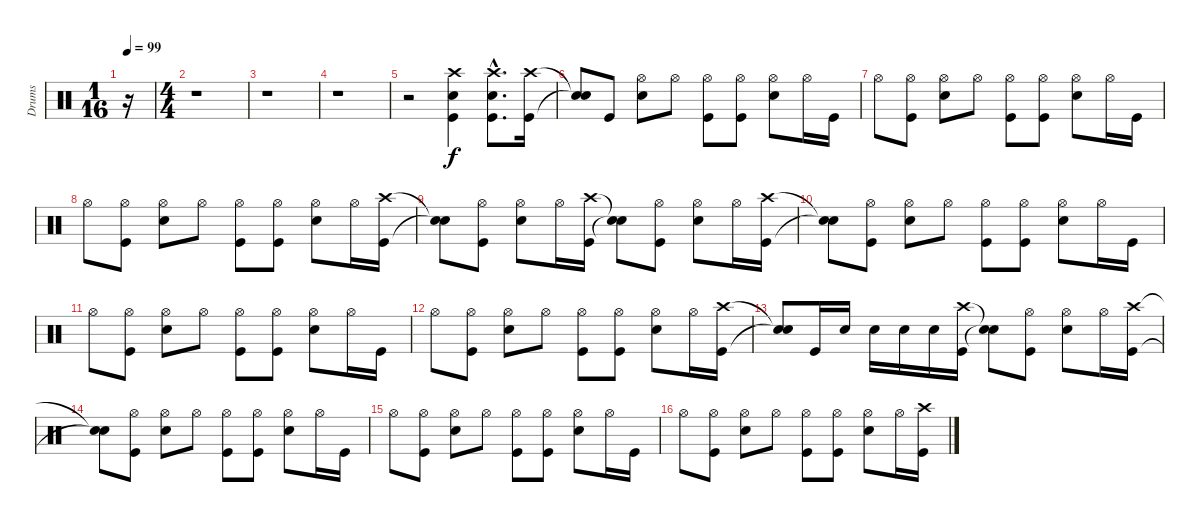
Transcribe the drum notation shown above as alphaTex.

\track ("Drums" "Drums") {instrument percussion}
\staff {score}
\articulation defaults
\ts (1 16)
\tempo 99
\clef neutral
\ks c
r.16{dy f} |
\ts (4 4)
r.1 |
r.1 |
r.1 |
r.2 ("Crash high (hit)" "Electric Snare (hit)" "Kick (hit)").4 ("Crash high (hit)"{hac} "Electric Snare (hit)"{hac} "Kick (hit)"{hac}).8{d} ("Crash high (hit)" "Kick (hit)").16 |
("Snare (hit)"{t} "Snare (hit)"{t}).8 "Kick (hit)".8 ("Hi-Hat (open)" "Electric Snare (hit)").8 "Hi-Hat (open)".8 ("Hi-Hat (open)" "Kick (hit)").8 ("Hi-Hat (open)" "Kick (hit)").8 ("Hi-Hat (open)" "Electric Snare (hit)").8 "Hi-Hat (open)".16 "Kick (hit)".16 |
"Hi-Hat (open)".8 ("Hi-Hat (open)" "Kick (hit)").8 ("Hi-Hat (open)" "Electric Snare (hit)").8 "Hi-Hat (open)".8 ("Hi-Hat (open)" "Kick (hit)").8 ("Hi-Hat (open)" "Kick (hit)").8 ("Hi-Hat (open)" "Electric Snare (hit)").8 "Hi-Hat (open)".16 "Kick (hit)".16 |
"Hi-Hat (open)".8 ("Hi-Hat (open)" "Kick (hit)").8 ("Hi-Hat (open)" "Electric Snare (hit)").8 "Hi-Hat (open)".8 ("Hi-Hat (open)" "Kick (hit)").8 ("Hi-Hat (open)" "Kick (hit)").8 ("Hi-Hat (open)" "Electric Snare (hit)").8 "Hi-Hat (open)".16 ("Crash high (hit)" "Kick (hit)").16 |
("Snare (hit)"{t} "Snare (hit)"{t}).8 ("Hi-Hat (open)" "Kick (hit)").8 ("Hi-Hat (open)" "Electric Snare (hit)").8 "Hi-Hat (open)".16 ("Crash high (hit)" "Kick (hit)").16 ("Snare (hit)"{t} "Snare (hit)"{t}).8 ("Hi-Hat (open)" "Kick (hit)").8 ("Hi-Hat (open)" "Electric Snare (hit)").8 "Hi-Hat (open)".16 ("Crash high (hit)" "Kick (hit)").16 |
("Snare (hit)"{t} "Snare (hit)"{t}).8 ("Hi-Hat (open)" "Kick (hit)").8 ("Hi-Hat (open)" "Electric Snare (hit)").8 "Hi-Hat (open)".8 ("Hi-Hat (open)" "Kick (hit)").8 ("Hi-Hat (open)" "Kick (hit)").8 ("Hi-Hat (open)" "Electric Snare (hit)").8 "Hi-Hat (open)".16 "Kick (hit)".16 |
"Hi-Hat (open)".8 ("Hi-Hat (open)" "Kick (hit)").8 ("Hi-Hat (open)" "Electric Snare (hit)").8 "Hi-Hat (open)".8 ("Hi-Hat (open)" "Kick (hit)").8 ("Hi-Hat (open)" "Kick (hit)").8 ("Hi-Hat (open)" "Electric Snare (hit)").8 "Hi-Hat (open)".16 "Kick (hit)".16 |
"Hi-Hat (open)".8 ("Hi-Hat (open)" "Kick (hit)").8 ("Hi-Hat (open)" "Electric Snare (hit)").8 "Hi-Hat (open)".8 ("Hi-Hat (open)" "Kick (hit)").8 ("Hi-Hat (open)" "Kick (hit)").8 ("Hi-Hat (open)" "Electric Snare (hit)").8 "Hi-Hat (open)".16 ("Crash high (hit)" "Kick (hit)").16 |
("Snare (hit)"{t} "Snare (hit)"{t}).8 "Kick (hit)".16 "Electric Snare (hit)".16 "Electric Snare (hit)".16 "Electric Snare (hit)".16 "Electric Snare (hit)".16 ("Crash high (hit)" "Kick (hit)").16 ("Snare (hit)"{t} "Snare (hit)"{t}).8 ("Hi-Hat (open)" "Kick (hit)").8 ("Hi-Hat (open)" "Electric Snare (hit)").8 "Hi-Hat (open)".16 ("Crash high (hit)" "Kick (hit)").16 |
("Snare (hit)"{t} "Snare (hit)"{t}).8 ("Hi-Hat (open)" "Kick (hit)").8 ("Hi-Hat (open)" "Electric Snare (hit)").8 "Hi-Hat (open)".8 ("Hi-Hat (open)" "Kick (hit)").8 ("Hi-Hat (open)" "Kick (hit)").8 ("Hi-Hat (open)" "Electric Snare (hit)").8 "Hi-Hat (open)".16 "Kick (hit)".16 |
"Hi-Hat (open)".8 ("Hi-Hat (open)" "Kick (hit)").8 ("Hi-Hat (open)" "Electric Snare (hit)").8 "Hi-Hat (open)".8 ("Hi-Hat (open)" "Kick (hit)").8 ("Hi-Hat (open)" "Kick (hit)").8 ("Hi-Hat (open)" "Electric Snare (hit)").8 "Hi-Hat (open)".16 "Kick (hit)".16 |
"Hi-Hat (open)".8 ("Hi-Hat (open)" "Kick (hit)").8 ("Hi-Hat (open)" "Electric Snare (hit)").8 "Hi-Hat (open)".8 ("Hi-Hat (open)" "Kick (hit)").8 ("Hi-Hat (open)" "Kick (hit)").8 ("Hi-Hat (open)" "Electric Snare (hit)").8 "Hi-Hat (open)".16 ("Crash high (hit)" "Kick (hit)").16
